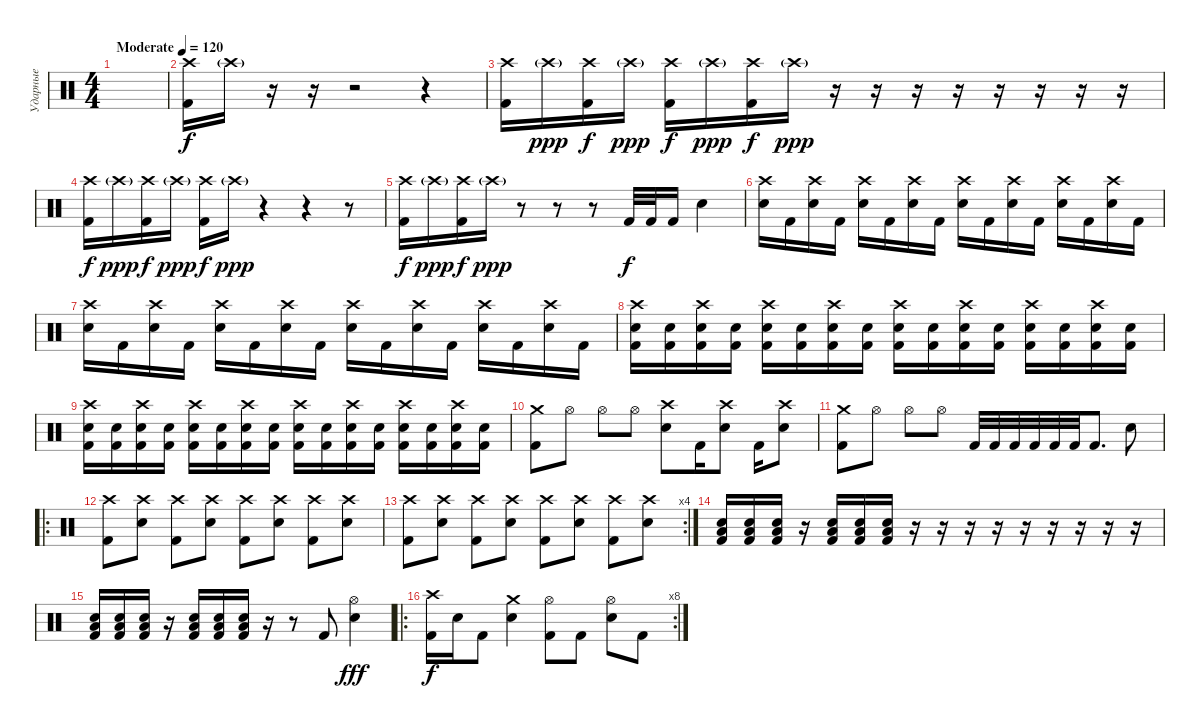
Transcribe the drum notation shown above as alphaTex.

\track ("Ударные" "Ударные") {instrument percussion}
\staff {score}
\articulation defaults
\ts (4 4)
\tempo (120 "Moderate")
\clef neutral
\ks c
|
("Crash high (hit)" "Kick (hit) 2").16 "Crash high (hit)"{g}.16 r.16 r.16 r.2 r.4 |
("Crash high (hit)" "Kick (hit) 2").16{dy f} "Crash high (hit)"{g}.16{dy ppp} ("Crash high (hit)" "Kick (hit) 2").16{dy f} "Crash high (hit)"{g}.16{dy ppp} ("Crash high (hit)" "Kick (hit) 2").16{dy f} "Crash high (hit)"{g}.16{dy ppp} ("Crash high (hit)" "Kick (hit) 2").16{dy f} "Crash high (hit)"{g}.16{dy ppp} r.16 r.16 r.16 r.16 r.16 r.16 r.16 r.16 |
("Crash high (hit)" "Kick (hit) 2").16{dy f} "Crash high (hit)"{g}.16{dy ppp} ("Crash high (hit)" "Kick (hit) 2").16{dy f} "Crash high (hit)"{g}.16{dy ppp} ("Crash high (hit)" "Kick (hit) 2").16{dy f} "Crash high (hit)"{g}.16{dy ppp} r.4 r.4 r.8 |
("Crash high (hit)" "Kick (hit) 2").16{dy f} "Crash high (hit)"{g}.16{dy ppp} ("Crash high (hit)" "Kick (hit) 2").16{dy f} "Crash high (hit)"{g}.16{dy ppp} r.8 r.8 r.8 "Kick (hit) 2".32{dy f} "Kick (hit) 2".32 "Kick (hit) 2".16 "Electric Snare (hit)".4 |
("Electric Snare (hit)" "Crash high (hit)").16 "Kick (hit) 2".16 ("Electric Snare (hit)" "Crash high (hit)").16 "Kick (hit) 2".16 ("Electric Snare (hit)" "Crash high (hit)").16 "Kick (hit) 2".16 ("Electric Snare (hit)" "Crash high (hit)").16 "Kick (hit) 2".16 ("Electric Snare (hit)" "Crash high (hit)").16 "Kick (hit) 2".16 ("Electric Snare (hit)" "Crash high (hit)").16 "Kick (hit) 2".16 ("Electric Snare (hit)" "Crash high (hit)").16 "Kick (hit) 2".16 ("Electric Snare (hit)" "Crash high (hit)").16 "Kick (hit) 2".16 |
("Electric Snare (hit)" "Crash high (hit)").16 "Kick (hit) 2".16 ("Electric Snare (hit)" "Crash high (hit)").16 "Kick (hit) 2".16 ("Electric Snare (hit)" "Crash high (hit)").16 "Kick (hit) 2".16 ("Electric Snare (hit)" "Crash high (hit)").16 "Kick (hit) 2".16 ("Electric Snare (hit)" "Crash high (hit)").16 "Kick (hit) 2".16 ("Electric Snare (hit)" "Crash high (hit)").16 "Kick (hit) 2".16 ("Electric Snare (hit)" "Crash high (hit)").16 "Kick (hit) 2".16 ("Electric Snare (hit)" "Crash high (hit)").16 "Kick (hit) 2".16 |
("Kick (hit) 2" "Electric Snare (hit)" "Crash high (hit)").16 ("Kick (hit) 2" "Electric Snare (hit)").16 ("Kick (hit) 2" "Electric Snare (hit)" "Crash high (hit)").16 ("Kick (hit) 2" "Electric Snare (hit)").16 ("Kick (hit) 2" "Electric Snare (hit)" "Crash high (hit)").16 ("Kick (hit) 2" "Electric Snare (hit)").16 ("Kick (hit) 2" "Electric Snare (hit)" "Crash high (hit)").16 ("Kick (hit) 2" "Electric Snare (hit)").16 ("Kick (hit) 2" "Electric Snare (hit)" "Crash high (hit)").16 ("Kick (hit) 2" "Electric Snare (hit)").16 ("Kick (hit) 2" "Electric Snare (hit)" "Crash high (hit)").16 ("Kick (hit) 2" "Electric Snare (hit)").16 ("Kick (hit) 2" "Electric Snare (hit)" "Crash high (hit)").16 ("Kick (hit) 2" "Electric Snare (hit)").16 ("Kick (hit) 2" "Electric Snare (hit)" "Crash high (hit)").16 ("Kick (hit) 2" "Electric Snare (hit)").16 |
("Kick (hit) 2" "Electric Snare (hit)" "Crash high (hit)").16 ("Kick (hit) 2" "Electric Snare (hit)").16 ("Kick (hit) 2" "Electric Snare (hit)" "Crash high (hit)").16 ("Kick (hit) 2" "Electric Snare (hit)").16 ("Kick (hit) 2" "Electric Snare (hit)" "Crash high (hit)").16 ("Kick (hit) 2" "Electric Snare (hit)").16 ("Kick (hit) 2" "Electric Snare (hit)" "Crash high (hit)").16 ("Kick (hit) 2" "Electric Snare (hit)").16 ("Kick (hit) 2" "Electric Snare (hit)" "Crash high (hit)").16 ("Kick (hit) 2" "Electric Snare (hit)").16 ("Kick (hit) 2" "Electric Snare (hit)" "Crash high (hit)").16 ("Kick (hit) 2" "Electric Snare (hit)").16 ("Kick (hit) 2" "Electric Snare (hit)" "Crash high (hit)").16 ("Kick (hit) 2" "Electric Snare (hit)").16 ("Kick (hit) 2" "Electric Snare (hit)" "Crash high (hit)").16 ("Kick (hit) 2" "Electric Snare (hit)").16 |
("Kick (hit) 2" "Crash medium (hit)").8 "Hi-Hat (open)".8 "Hi-Hat (open)".8 "Hi-Hat (open)".8 ("Electric Snare (hit)" "Crash high (hit)").8 "Kick (hit) 2".16 ("Electric Snare (hit)" "Crash high (hit)").8 "Kick (hit) 2".16 ("Electric Snare (hit)" "Crash high (hit)").8 |
("Kick (hit) 2" "Crash medium (hit)").8 "Hi-Hat (open)".8 "Hi-Hat (open)".8 "Hi-Hat (open)".8 "Kick (hit) 2".32 "Kick (hit) 2".32 "Kick (hit) 2".32 "Kick (hit) 2".32 "Kick (hit) 2".32 "Kick (hit) 2".32 "Kick (hit) 2".8{d} "Electric Snare (hit)".8 |
\ro
("Crash high (hit)" "Kick (hit) 2").8 ("Crash high (hit)" "Electric Snare (hit)").8 ("Crash high (hit)" "Kick (hit) 2").8 ("Crash high (hit)" "Electric Snare (hit)").8 ("Crash high (hit)" "Kick (hit) 2").8 ("Crash high (hit)" "Electric Snare (hit)").8 ("Crash high (hit)" "Kick (hit) 2").8 ("Crash high (hit)" "Electric Snare (hit)").8 |
\rc 4
("Crash high (hit)" "Kick (hit) 2").8 ("Crash high (hit)" "Electric Snare (hit)").8 ("Crash high (hit)" "Kick (hit) 2").8 ("Crash high (hit)" "Electric Snare (hit)").8 ("Crash high (hit)" "Kick (hit) 2").8 ("Crash high (hit)" "Electric Snare (hit)").8 ("Crash high (hit)" "Kick (hit) 2").8 ("Crash high (hit)" "Electric Snare (hit)").8 |
("Kick (hit) 2" "Electric Snare (hit)" "Low Tom (hit)").16 ("Kick (hit) 2" "Electric Snare (hit)" "Low Tom (hit)").16 ("Kick (hit) 2" "Electric Snare (hit)" "Low Tom (hit)").16 r.16 ("Kick (hit) 2" "Electric Snare (hit)" "Low Tom (hit)").16 ("Kick (hit) 2" "Electric Snare (hit)" "Low Tom (hit)").16 ("Kick (hit) 2" "Electric Snare (hit)" "Low Tom (hit)").16 r.16 r.16 r.16 r.16 r.16 r.16 r.16 r.16 r.16 |
("Kick (hit) 2" "Electric Snare (hit)" "Low Tom (hit)").16 ("Kick (hit) 2" "Electric Snare (hit)" "Low Tom (hit)").16 ("Kick (hit) 2" "Electric Snare (hit)" "Low Tom (hit)").16 r.16 ("Kick (hit) 2" "Electric Snare (hit)" "Low Tom (hit)").16 ("Kick (hit) 2" "Electric Snare (hit)" "Low Tom (hit)").16 ("Kick (hit) 2" "Electric Snare (hit)" "Low Tom (hit)").16 r.16 r.8 "Kick (hit) 2".8 ("Electric Snare (hit)" "Hi-Hat (open)").4{dy fff} |
\ro
\rc 8
("Kick (hit) 2" "Crash high (hit)").16{dy f} "Electric Snare (hit)".16 "Kick (hit) 2".8 ("Electric Snare (hit)" "Crash medium (hit)").4 ("Hi-Hat (open)" "Kick (hit) 2").8 "Kick (hit) 2".8 ("Hi-Hat (open)" "Electric Snare (hit)").8 "Kick (hit) 2".8
